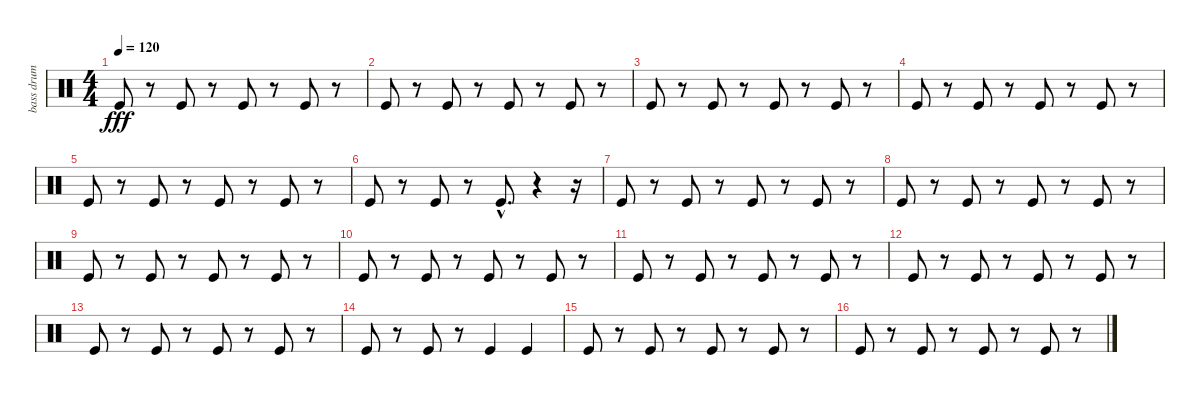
\track ("bass drum" "bass drum") {instrument percussion}
\staff {score}
\articulation defaults
\ts (4 4)
\tempo 120
\clef neutral
\ks c "Kick (hit)".8{dy fff}
r.8 "Kick (hit)".8 r.8 "Kick (hit)".8 r.8 "Kick (hit)".8 r.8 |
"Kick (hit)".8 r.8 "Kick (hit)".8 r.8 "Kick (hit)".8 r.8 "Kick (hit)".8 r.8 |
"Kick (hit)".8 r.8 "Kick (hit)".8 r.8 "Kick (hit)".8 r.8 "Kick (hit)".8 r.8 |
"Kick (hit)".8 r.8 "Kick (hit)".8 r.8 "Kick (hit)".8 r.8 "Kick (hit)".8 r.8 |
"Kick (hit)".8 r.8 "Kick (hit)".8 r.8 "Kick (hit)".8 r.8 "Kick (hit)".8 r.8 |
"Kick (hit)".8 r.8 "Kick (hit)".8 r.8 "Kick (hit)"{hac}.8{d} r.4 r.16 |
"Kick (hit)".8 r.8 "Kick (hit)".8 r.8 "Kick (hit)".8 r.8 "Kick (hit)".8 r.8 |
"Kick (hit)".8 r.8 "Kick (hit)".8 r.8 "Kick (hit)".8 r.8 "Kick (hit)".8 r.8 |
"Kick (hit)".8 r.8 "Kick (hit)".8 r.8 "Kick (hit)".8 r.8 "Kick (hit)".8 r.8 |
"Kick (hit)".8 r.8 "Kick (hit)".8 r.8 "Kick (hit)".8 r.8 "Kick (hit)".8 r.8 |
"Kick (hit)".8 r.8 "Kick (hit)".8 r.8 "Kick (hit)".8 r.8 "Kick (hit)".8 r.8 |
"Kick (hit)".8 r.8 "Kick (hit)".8 r.8 "Kick (hit)".8 r.8 "Kick (hit)".8 r.8 |
"Kick (hit)".8 r.8 "Kick (hit)".8 r.8 "Kick (hit)".8 r.8 "Kick (hit)".8 r.8 |
"Kick (hit)".8 r.8 "Kick (hit)".8 r.8 "Kick (hit)".4 "Kick (hit)".4 |
"Kick (hit)".8 r.8 "Kick (hit)".8 r.8 "Kick (hit)".8 r.8 "Kick (hit)".8 r.8 |
"Kick (hit)".8 r.8 "Kick (hit)".8 r.8 "Kick (hit)".8 r.8 "Kick (hit)".8 r.8
